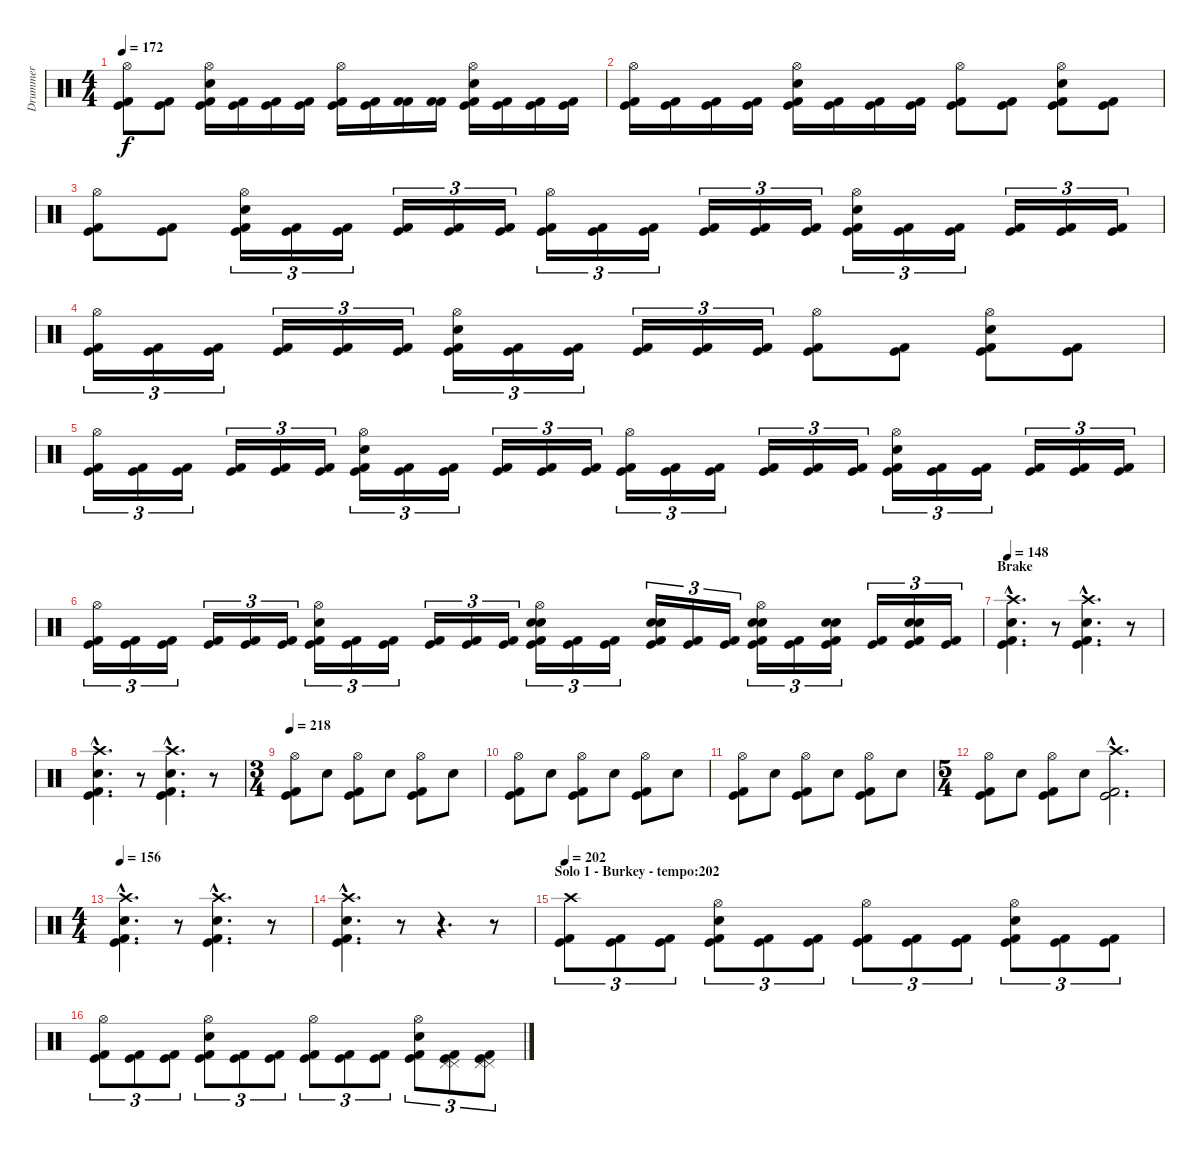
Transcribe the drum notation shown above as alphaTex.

\track ("Drummer" "Drummer") {instrument percussion}
\staff {score}
\articulation defaults
\ts (4 4)
\tempo 172
\clef neutral
\ks c
("Hi-Hat (open)" "Kick (hit)" "Kick (hit) 2").8{dy f} ("Kick (hit)" "Kick (hit) 2").8 ("Hi-Hat (open)" "Snare (hit) 2" "Kick (hit)" "Kick (hit) 2").16 ("Kick (hit)" "Kick (hit) 2").16 ("Kick (hit)" "Kick (hit) 2").16 ("Kick (hit)" "Kick (hit) 2").16 ("Hi-Hat (open)" "Kick (hit)" "Kick (hit) 2").16 ("Kick (hit)" "Kick (hit) 2").16 ("Kick (hit) 2" "Kick (hit) 2").16 ("Kick (hit) 2" "Kick (hit) 2").16 ("Hi-Hat (open)" "Snare (hit) 2" "Kick (hit)" "Kick (hit) 2").16 ("Kick (hit)" "Kick (hit) 2").16 ("Kick (hit)" "Kick (hit) 2").16 ("Kick (hit)" "Kick (hit) 2").16 |
("Hi-Hat (open)" "Kick (hit)" "Kick (hit) 2").16 ("Kick (hit)" "Kick (hit) 2").16 ("Kick (hit)" "Kick (hit) 2").16 ("Kick (hit)" "Kick (hit) 2").16 ("Hi-Hat (open)" "Snare (hit) 2" "Kick (hit)" "Kick (hit) 2").16 ("Kick (hit)" "Kick (hit) 2").16 ("Kick (hit)" "Kick (hit) 2").16 ("Kick (hit)" "Kick (hit) 2").16 ("Hi-Hat (open)" "Kick (hit)" "Kick (hit) 2").8 ("Kick (hit)" "Kick (hit) 2").8 ("Hi-Hat (open)" "Snare (hit) 2" "Kick (hit)" "Kick (hit) 2").8 ("Kick (hit)" "Kick (hit) 2").8 |
("Hi-Hat (open)" "Kick (hit)" "Kick (hit) 2").8 ("Kick (hit)" "Kick (hit) 2").8 ("Hi-Hat (open)" "Snare (hit) 2" "Kick (hit)" "Kick (hit) 2").16{tu (3 2)} ("Kick (hit)" "Kick (hit) 2").16{tu (3 2)} ("Kick (hit)" "Kick (hit) 2").16{tu (3 2)} ("Kick (hit)" "Kick (hit) 2").16{tu (3 2)} ("Kick (hit)" "Kick (hit) 2").16{tu (3 2)} ("Kick (hit)" "Kick (hit) 2").16{tu (3 2)} ("Hi-Hat (open)" "Kick (hit)" "Kick (hit) 2").16{tu (3 2)} ("Kick (hit)" "Kick (hit) 2").16{tu (3 2)} ("Kick (hit)" "Kick (hit) 2").16{tu (3 2)} ("Kick (hit)" "Kick (hit) 2").16{tu (3 2)} ("Kick (hit)" "Kick (hit) 2").16{tu (3 2)} ("Kick (hit)" "Kick (hit) 2").16{tu (3 2)} ("Hi-Hat (open)" "Snare (hit) 2" "Kick (hit)" "Kick (hit) 2").16{tu (3 2)} ("Kick (hit) 2" "Kick (hit)").16{tu (3 2)} ("Kick (hit)" "Kick (hit) 2").16{tu (3 2)} ("Kick (hit)" "Kick (hit) 2").16{tu (3 2)} ("Kick (hit)" "Kick (hit) 2").16{tu (3 2)} ("Kick (hit)" "Kick (hit) 2").16{tu (3 2)} |
("Hi-Hat (open)" "Kick (hit)" "Kick (hit) 2").16{tu (3 2)} ("Kick (hit)" "Kick (hit) 2").16{tu (3 2)} ("Kick (hit)" "Kick (hit) 2").16{tu (3 2)} ("Kick (hit)" "Kick (hit) 2").16{tu (3 2)} ("Kick (hit)" "Kick (hit) 2").16{tu (3 2)} ("Kick (hit)" "Kick (hit) 2").16{tu (3 2)} ("Hi-Hat (open)" "Snare (hit) 2" "Kick (hit)" "Kick (hit) 2").16{tu (3 2)} ("Kick (hit)" "Kick (hit) 2").16{tu (3 2)} ("Kick (hit)" "Kick (hit) 2").16{tu (3 2)} ("Kick (hit)" "Kick (hit) 2").16{tu (3 2)} ("Kick (hit)" "Kick (hit) 2").16{tu (3 2)} ("Kick (hit)" "Kick (hit) 2").16{tu (3 2)} ("Hi-Hat (open)" "Kick (hit)" "Kick (hit) 2").8 ("Kick (hit)" "Kick (hit) 2").8 ("Hi-Hat (open)" "Snare (hit) 2" "Kick (hit)" "Kick (hit) 2").8 ("Kick (hit)" "Kick (hit) 2").8 |
("Hi-Hat (open)" "Kick (hit)" "Kick (hit) 2").16{tu (3 2)} ("Kick (hit)" "Kick (hit) 2").16{tu (3 2)} ("Kick (hit)" "Kick (hit) 2").16{tu (3 2)} ("Kick (hit) 2" "Kick (hit)").16{tu (3 2)} ("Kick (hit)" "Kick (hit) 2").16{tu (3 2)} ("Kick (hit)" "Kick (hit) 2").16{tu (3 2)} ("Hi-Hat (open)" "Snare (hit) 2" "Kick (hit)" "Kick (hit) 2").16{tu (3 2)} ("Kick (hit)" "Kick (hit) 2").16{tu (3 2)} ("Kick (hit)" "Kick (hit) 2").16{tu (3 2)} ("Kick (hit)" "Kick (hit) 2").16{tu (3 2)} ("Kick (hit)" "Kick (hit) 2").16{tu (3 2)} ("Kick (hit)" "Kick (hit) 2").16{tu (3 2)} ("Hi-Hat (open)" "Kick (hit)" "Kick (hit) 2").16{tu (3 2)} ("Kick (hit)" "Kick (hit) 2").16{tu (3 2)} ("Kick (hit)" "Kick (hit) 2").16{tu (3 2)} ("Kick (hit)" "Kick (hit) 2").16{tu (3 2)} ("Kick (hit)" "Kick (hit) 2").16{tu (3 2)} ("Kick (hit)" "Kick (hit) 2").16{tu (3 2)} ("Hi-Hat (open)" "Snare (hit) 2" "Kick (hit)" "Kick (hit) 2").16{tu (3 2)} ("Kick (hit) 2" "Kick (hit)").16{tu (3 2)} ("Kick (hit)" "Kick (hit) 2").16{tu (3 2)} ("Kick (hit)" "Kick (hit) 2").16{tu (3 2)} ("Kick (hit)" "Kick (hit) 2").16{tu (3 2)} ("Kick (hit)" "Kick (hit) 2").16{tu (3 2)} |
("Hi-Hat (open)" "Kick (hit)" "Kick (hit) 2").16{tu (3 2)} ("Kick (hit)" "Kick (hit) 2").16{tu (3 2)} ("Kick (hit)" "Kick (hit) 2").16{tu (3 2)} ("Kick (hit)" "Kick (hit) 2").16{tu (3 2)} ("Kick (hit)" "Kick (hit) 2").16{tu (3 2)} ("Kick (hit)" "Kick (hit) 2").16{tu (3 2)} ("Hi-Hat (open)" "Snare (hit) 2" "Kick (hit)" "Kick (hit) 2").16{tu (3 2)} ("Kick (hit)" "Kick (hit) 2").16{tu (3 2)} ("Kick (hit)" "Kick (hit) 2").16{tu (3 2)} ("Kick (hit)" "Kick (hit) 2").16{tu (3 2)} ("Kick (hit)" "Kick (hit) 2").16{tu (3 2)} ("Kick (hit)" "Kick (hit) 2").16{tu (3 2)} ("Hi-Hat (open)" "Electric Snare (hit)" "Snare (hit) 2" "Kick (hit)" "Kick (hit) 2").16{tu (3 2)} ("Kick (hit)" "Kick (hit) 2").16{tu (3 2)} ("Kick (hit)" "Kick (hit) 2").16{tu (3 2)} ("Electric Snare (hit)" "Snare (hit) 2" "Kick (hit)" "Kick (hit) 2").16{tu (3 2)} ("Kick (hit)" "Kick (hit) 2").16{tu (3 2)} ("Kick (hit)" "Kick (hit) 2").16{tu (3 2)} ("Hi-Hat (open)" "Electric Snare (hit)" "Snare (hit) 2" "Kick (hit)" "Kick (hit) 2").16{tu (3 2)} ("Kick (hit)" "Kick (hit) 2").16{tu (3 2)} ("Electric Snare (hit)" "Snare (hit) 2" "Kick (hit)" "Kick (hit) 2").16{tu (3 2)} ("Kick (hit)" "Kick (hit) 2").16{tu (3 2)} ("Electric Snare (hit)" "Snare (hit) 2" "Kick (hit)" "Kick (hit) 2").16{tu (3 2)} ("Kick (hit)" "Kick (hit) 2").16{tu (3 2)} |
\section ("" "Brake")
\tempo 148
("Snare (hit) 2"{hac} "Crash high (hit)"{hac} "Kick (hit)"{hac} "Kick (hit) 2"{hac}).4{d} r.8 ("Snare (hit) 2"{hac} "Crash high (hit)"{hac} "Kick (hit)"{hac} "Kick (hit) 2"{hac}).4{d} r.8 |
("Snare (hit) 2"{hac} "Crash high (hit)"{hac} "Kick (hit)"{hac} "Kick (hit) 2"{hac}).4{d} r.8 ("Snare (hit) 2"{hac} "Crash high (hit)"{hac} "Kick (hit)"{hac} "Kick (hit) 2"{hac}).4{d} r.8 |
\ts (3 4)
\tempo 218
("Hi-Hat (open)" "Kick (hit)" "Kick (hit) 2").8 "Snare (hit) 2".8 ("Hi-Hat (open)" "Kick (hit)" "Kick (hit) 2").8 "Snare (hit) 2".8 ("Hi-Hat (open)" "Kick (hit)" "Kick (hit) 2").8 "Snare (hit) 2".8 |
("Hi-Hat (open)" "Kick (hit)" "Kick (hit) 2").8 "Snare (hit) 2".8 ("Hi-Hat (open)" "Kick (hit)" "Kick (hit) 2").8 "Snare (hit) 2".8 ("Hi-Hat (open)" "Kick (hit)" "Kick (hit) 2").8 "Snare (hit) 2".8 |
("Hi-Hat (open)" "Kick (hit)" "Kick (hit) 2").8 "Snare (hit) 2".8 ("Hi-Hat (open)" "Kick (hit)" "Kick (hit) 2").8 "Snare (hit) 2".8 ("Hi-Hat (open)" "Kick (hit)" "Kick (hit) 2").8 "Snare (hit) 2".8 |
\ts (5 4)
("Hi-Hat (open)" "Kick (hit)" "Kick (hit) 2").8 "Snare (hit) 2".8 ("Hi-Hat (open)" "Kick (hit)" "Kick (hit) 2").8 "Snare (hit) 2".8 ("Kick (hit)"{hac} "Crash high (hit)"{hac} "Kick (hit) 2"{hac}).2{d} |
\ts (4 4)
\tempo 156
("Snare (hit) 2"{hac} "Crash high (hit)"{hac} "Kick (hit)"{hac} "Kick (hit) 2"{hac}).4{d} r.8 ("Snare (hit) 2"{hac} "Crash high (hit)"{hac} "Kick (hit)"{hac} "Kick (hit) 2"{hac}).4{d} r.8 |
("Snare (hit) 2"{hac} "Crash high (hit)"{hac} "Kick (hit)"{hac} "Kick (hit) 2"{hac}).4{d} r.8 r.4{d} r.8 |
\section ("" "Solo 1 - Burkey - tempo:202")
\tempo 202
("Crash high (hit)" "Kick (hit)" "Kick (hit) 2").8{tu (3 2)} ("Kick (hit)" "Kick (hit) 2").8{tu (3 2)} ("Kick (hit)" "Kick (hit) 2").8{tu (3 2)} ("Hi-Hat (open)" "Kick (hit)" "Snare (hit) 2" "Kick (hit) 2").8{tu (3 2)} ("Kick (hit)" "Kick (hit) 2").8{tu (3 2)} ("Kick (hit)" "Kick (hit) 2").8{tu (3 2)} ("Hi-Hat (open)" "Kick (hit)" "Kick (hit) 2").8{tu (3 2)} ("Kick (hit)" "Kick (hit) 2").8{tu (3 2)} ("Kick (hit)" "Kick (hit) 2").8{tu (3 2)} ("Hi-Hat (open)" "Kick (hit)" "Snare (hit) 2" "Kick (hit) 2").8{tu (3 2)} ("Kick (hit)" "Kick (hit) 2").8{tu (3 2)} ("Kick (hit)" "Kick (hit) 2").8{tu (3 2)} |
("Hi-Hat (open)" "Kick (hit)" "Kick (hit) 2").8{tu (3 2)} ("Kick (hit)" "Kick (hit) 2").8{tu (3 2)} ("Kick (hit)" "Kick (hit) 2").8{tu (3 2)} ("Hi-Hat (open)" "Kick (hit)" "Snare (hit) 2" "Kick (hit) 2").8{tu (3 2)} ("Kick (hit)" "Kick (hit) 2").8{tu (3 2)} ("Kick (hit)" "Kick (hit) 2").8{tu (3 2)} ("Hi-Hat (open)" "Kick (hit)" "Kick (hit) 2").8{tu (3 2)} ("Kick (hit)" "Kick (hit) 2").8{tu (3 2)} ("Kick (hit)" "Kick (hit) 2").8{tu (3 2)} ("Hi-Hat (open)" "Kick (hit)" "Snare (hit) 2" "Kick (hit) 2").8{tu (3 2)} ("Pedal Hi-Hat (hit)" "Pedal Hi-Hat (hit)" "Kick (hit)" "Kick (hit) 2").8{tu (3 2)} ("Pedal Hi-Hat (hit)" "Pedal Hi-Hat (hit)" "Kick (hit)" "Kick (hit) 2").8{tu (3 2)}
